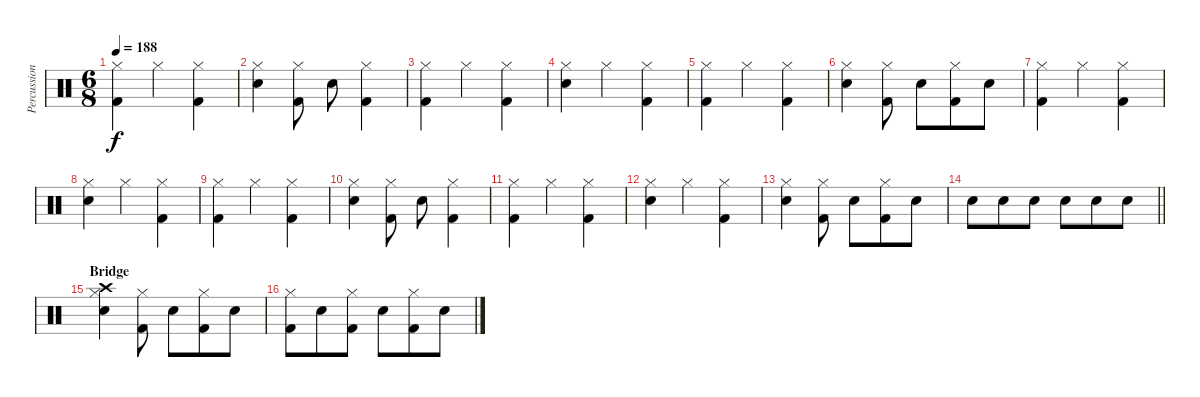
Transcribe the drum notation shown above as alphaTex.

\track ("Percussion" "Percussion") {instrument percussion}
\staff {score}
\articulation defaults
\ts (6 8)
\tempo 188
\clef neutral
\ks c
("Hi-Hat (closed)" "Kick (hit) 2").4{dy f} "Hi-Hat (closed)".4 ("Hi-Hat (closed)" "Kick (hit) 2").4 |
("Hi-Hat (closed)" "Snare (hit) 2").4 ("Hi-Hat (closed)" "Kick (hit) 2").8 "Electric Snare (hit)".8 ("Hi-Hat (closed)" "Kick (hit) 2").4 |
("Hi-Hat (closed)" "Kick (hit) 2").4 "Hi-Hat (closed)".4 ("Hi-Hat (closed)" "Kick (hit) 2").4 |
("Hi-Hat (closed)" "Snare (hit) 2").4 "Hi-Hat (closed)".4 ("Hi-Hat (closed)" "Kick (hit) 2").4 |
("Hi-Hat (closed)" "Kick (hit) 2").4 "Hi-Hat (closed)".4 ("Hi-Hat (closed)" "Kick (hit) 2").4 |
("Hi-Hat (closed)" "Snare (hit) 2").4 ("Hi-Hat (closed)" "Kick (hit) 2").8 "Electric Snare (hit)".8 ("Hi-Hat (closed)" "Kick (hit) 2").8 "Electric Snare (hit)".8 |
("Hi-Hat (closed)" "Kick (hit) 2").4 "Hi-Hat (closed)".4 ("Hi-Hat (closed)" "Kick (hit) 2").4 |
("Hi-Hat (closed)" "Snare (hit) 2").4 "Hi-Hat (closed)".4 ("Hi-Hat (closed)" "Kick (hit) 2").4 |
("Hi-Hat (closed)" "Kick (hit) 2").4 "Hi-Hat (closed)".4 ("Hi-Hat (closed)" "Kick (hit) 2").4 |
("Hi-Hat (closed)" "Snare (hit) 2").4 ("Hi-Hat (closed)" "Kick (hit) 2").8 "Electric Snare (hit)".8 ("Hi-Hat (closed)" "Kick (hit) 2").4 |
("Hi-Hat (closed)" "Kick (hit) 2").4 "Hi-Hat (closed)".4 ("Hi-Hat (closed)" "Kick (hit) 2").4 |
("Hi-Hat (closed)" "Snare (hit) 2").4 "Hi-Hat (closed)".4 ("Hi-Hat (closed)" "Kick (hit) 2").4 |
("Hi-Hat (closed)" "Snare (hit) 2").4 ("Hi-Hat (closed)" "Kick (hit) 2").8 "Electric Snare (hit)".8 ("Hi-Hat (closed)" "Kick (hit) 2").8 "Electric Snare (hit)".8 |
\barLineRight lightlight "Snare (hit) 2".8 "Snare (hit) 2".8 "Snare (hit) 2".8 "Snare (hit) 2".8 "Snare (hit) 2".8 "Snare (hit) 2".8
|
\section ("" "Bridge")
("Hi-Hat (closed)" "Crash high (hit)" "Snare (hit) 2").4 ("Hi-Hat (closed)" "Kick (hit) 2").8 "Electric Snare (hit)".8 ("Hi-Hat (closed)" "Kick (hit) 2").8 "Electric Snare (hit)".8 |
("Hi-Hat (closed)" "Kick (hit) 2").8 "Electric Snare (hit)".8 ("Hi-Hat (closed)" "Kick (hit) 2").8 "Electric Snare (hit)".8 ("Hi-Hat (closed)" "Kick (hit) 2").8 "Electric Snare (hit)".8
